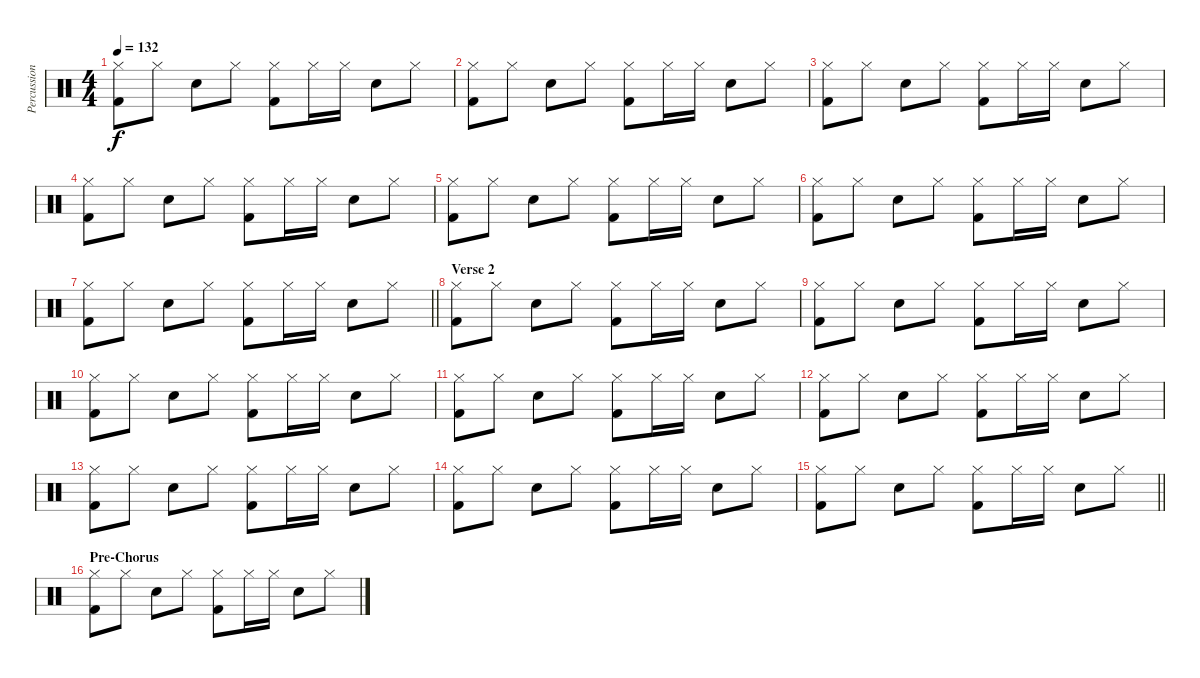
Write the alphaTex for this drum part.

\track ("Percussion" "Percussion") {instrument percussion}
\staff {score}
\articulation defaults
\ts (4 4)
\tempo 132
\clef neutral
\ks c
("Hi-Hat (closed)" "Kick (hit) 2").8{dy f} "Hi-Hat (closed)".8 "Snare (hit) 2".8 "Hi-Hat (closed)".8 ("Hi-Hat (closed)" "Kick (hit) 2").8 "Hi-Hat (closed)".16 "Hi-Hat (closed)".16 "Snare (hit) 2".8 "Hi-Hat (closed)".8 |
("Hi-Hat (closed)" "Kick (hit) 2").8 "Hi-Hat (closed)".8 "Snare (hit) 2".8 "Hi-Hat (closed)".8 ("Hi-Hat (closed)" "Kick (hit) 2").8 "Hi-Hat (closed)".16 "Hi-Hat (closed)".16 "Snare (hit) 2".8 "Hi-Hat (closed)".8 |
("Hi-Hat (closed)" "Kick (hit) 2").8 "Hi-Hat (closed)".8 "Snare (hit) 2".8 "Hi-Hat (closed)".8 ("Hi-Hat (closed)" "Kick (hit) 2").8 "Hi-Hat (closed)".16 "Hi-Hat (closed)".16 "Snare (hit) 2".8 "Hi-Hat (closed)".8 |
("Hi-Hat (closed)" "Kick (hit) 2").8 "Hi-Hat (closed)".8 "Snare (hit) 2".8 "Hi-Hat (closed)".8 ("Hi-Hat (closed)" "Kick (hit) 2").8 "Hi-Hat (closed)".16 "Hi-Hat (closed)".16 "Snare (hit) 2".8 "Hi-Hat (closed)".8 |
("Hi-Hat (closed)" "Kick (hit) 2").8 "Hi-Hat (closed)".8 "Snare (hit) 2".8 "Hi-Hat (closed)".8 ("Hi-Hat (closed)" "Kick (hit) 2").8 "Hi-Hat (closed)".16 "Hi-Hat (closed)".16 "Snare (hit) 2".8 "Hi-Hat (closed)".8 |
("Hi-Hat (closed)" "Kick (hit) 2").8 "Hi-Hat (closed)".8 "Snare (hit) 2".8 "Hi-Hat (closed)".8 ("Hi-Hat (closed)" "Kick (hit) 2").8 "Hi-Hat (closed)".16 "Hi-Hat (closed)".16 "Snare (hit) 2".8 "Hi-Hat (closed)".8 |
\barLineRight lightlight
("Hi-Hat (closed)" "Kick (hit) 2").8 "Hi-Hat (closed)".8 "Snare (hit) 2".8 "Hi-Hat (closed)".8 ("Hi-Hat (closed)" "Kick (hit) 2").8 "Hi-Hat (closed)".16 "Hi-Hat (closed)".16 "Snare (hit) 2".8 "Hi-Hat (closed)".8 |
\section ("" "Verse 2")
("Hi-Hat (closed)" "Kick (hit) 2").8 "Hi-Hat (closed)".8 "Snare (hit) 2".8 "Hi-Hat (closed)".8 ("Hi-Hat (closed)" "Kick (hit) 2").8 "Hi-Hat (closed)".16 "Hi-Hat (closed)".16 "Snare (hit) 2".8 "Hi-Hat (closed)".8 |
("Hi-Hat (closed)" "Kick (hit) 2").8 "Hi-Hat (closed)".8 "Snare (hit) 2".8 "Hi-Hat (closed)".8 ("Hi-Hat (closed)" "Kick (hit) 2").8 "Hi-Hat (closed)".16 "Hi-Hat (closed)".16 "Snare (hit) 2".8 "Hi-Hat (closed)".8 |
("Hi-Hat (closed)" "Kick (hit) 2").8 "Hi-Hat (closed)".8 "Snare (hit) 2".8 "Hi-Hat (closed)".8 ("Hi-Hat (closed)" "Kick (hit) 2").8 "Hi-Hat (closed)".16 "Hi-Hat (closed)".16 "Snare (hit) 2".8 "Hi-Hat (closed)".8 |
("Hi-Hat (closed)" "Kick (hit) 2").8 "Hi-Hat (closed)".8 "Snare (hit) 2".8 "Hi-Hat (closed)".8 ("Hi-Hat (closed)" "Kick (hit) 2").8 "Hi-Hat (closed)".16 "Hi-Hat (closed)".16 "Snare (hit) 2".8 "Hi-Hat (closed)".8 |
("Hi-Hat (closed)" "Kick (hit) 2").8 "Hi-Hat (closed)".8 "Snare (hit) 2".8 "Hi-Hat (closed)".8 ("Hi-Hat (closed)" "Kick (hit) 2").8 "Hi-Hat (closed)".16 "Hi-Hat (closed)".16 "Snare (hit) 2".8 "Hi-Hat (closed)".8 |
("Hi-Hat (closed)" "Kick (hit) 2").8 "Hi-Hat (closed)".8 "Snare (hit) 2".8 "Hi-Hat (closed)".8 ("Hi-Hat (closed)" "Kick (hit) 2").8 "Hi-Hat (closed)".16 "Hi-Hat (closed)".16 "Snare (hit) 2".8 "Hi-Hat (closed)".8 |
("Hi-Hat (closed)" "Kick (hit) 2").8 "Hi-Hat (closed)".8 "Snare (hit) 2".8 "Hi-Hat (closed)".8 ("Hi-Hat (closed)" "Kick (hit) 2").8 "Hi-Hat (closed)".16 "Hi-Hat (closed)".16 "Snare (hit) 2".8 "Hi-Hat (closed)".8 |
\barLineRight lightlight
("Hi-Hat (closed)" "Kick (hit) 2").8 "Hi-Hat (closed)".8 "Snare (hit) 2".8 "Hi-Hat (closed)".8 ("Hi-Hat (closed)" "Kick (hit) 2").8 "Hi-Hat (closed)".16 "Hi-Hat (closed)".16 "Snare (hit) 2".8 "Hi-Hat (closed)".8 |
\section ("" "Pre-Chorus")
("Hi-Hat (closed)" "Kick (hit) 2").8 "Hi-Hat (closed)".8 "Snare (hit) 2".8 "Hi-Hat (closed)".8 ("Hi-Hat (closed)" "Kick (hit) 2").8 "Hi-Hat (closed)".16 "Hi-Hat (closed)".16 "Snare (hit) 2".8 "Hi-Hat (closed)".8
